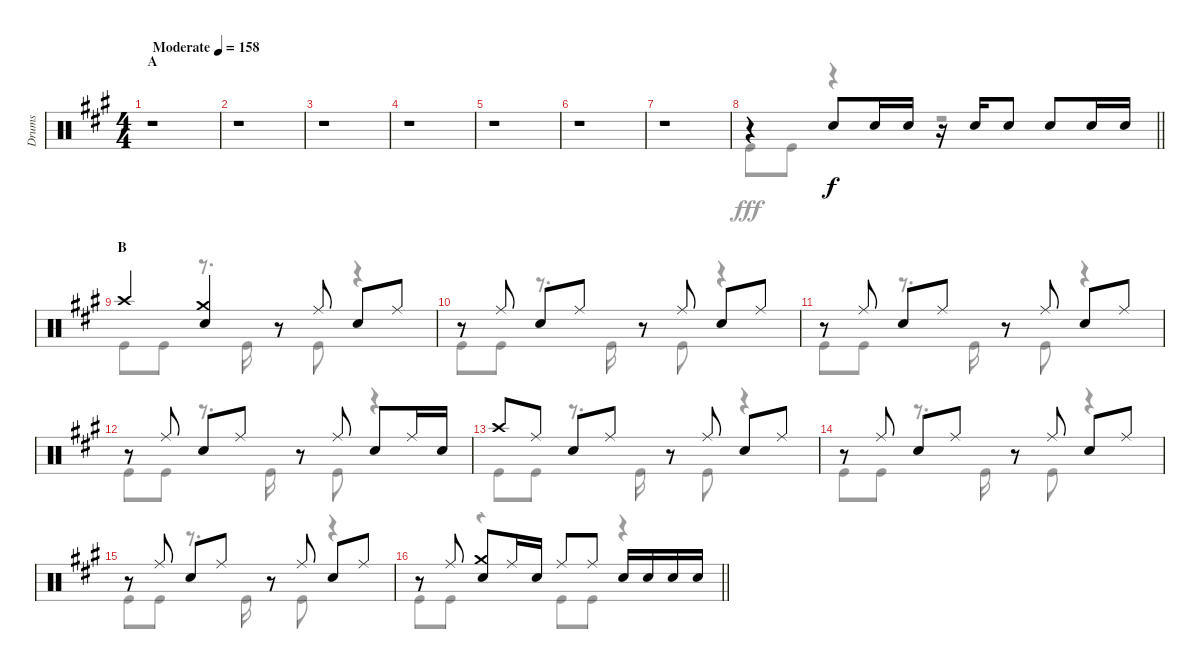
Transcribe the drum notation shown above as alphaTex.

\track ("Drums" "Drums") {instrument percussion}
\staff {score}
\articulation defaults
\voice
\ts (4 4)
\section ("" "A")
\tempo (158 "Moderate")
\clef neutral
\ks a
r.1{dy f} |
r.1 |
r.1 |
r.1 |
r.1 |
r.1 |
r.1 |
\barLineRight lightlight
r.4 "Snare (hit) 2".8 "Snare (hit) 2".16 "Snare (hit) 2".16 r.16 "Snare (hit) 2".16 "Snare (hit) 2".8 "Snare (hit) 2".8 "Snare (hit) 2".16 "Snare (hit) 2".16 |
\section ("" "B")
"Crash high (hit)".4 ("Crash medium (hit)" "Snare (hit) 2").4 r.8 "Ride (middle)".8 "Snare (hit) 2".8 "Ride (middle)".8 |
r.8 "Ride (middle)".8 "Snare (hit) 2".8 "Ride (middle)".8 r.8 "Ride (middle)".8 "Snare (hit) 2".8 "Ride (middle)".8 |
r.8 "Ride (middle)".8 "Snare (hit) 2".8 "Ride (middle)".8 r.8 "Ride (middle)".8 "Snare (hit) 2".8 "Ride (middle)".8 |
r.8 "Ride (middle)".8 "Snare (hit) 2".8 "Ride (middle)".8 r.8 "Ride (middle)".8 "Snare (hit) 2".8 "Ride (middle)".16 "Snare (hit) 2".16 |
"Crash high (hit)".8 "Ride (middle)".8 "Snare (hit) 2".8 "Ride (middle)".8 r.8 "Ride (middle)".8 "Snare (hit) 2".8 "Ride (middle)".8 |
r.8 "Ride (middle)".8 "Snare (hit) 2".8 "Ride (middle)".8 r.8 "Ride (middle)".8 "Snare (hit) 2".8 "Ride (middle)".8 |
r.8 "Ride (middle)".8 "Snare (hit) 2".8 "Ride (middle)".8 r.8 "Ride (middle)".8 "Snare (hit) 2".8 "Ride (middle)".8 |
\barLineRight lightlight
r.8 "Ride (middle)".8 ("Crash medium (hit)" "Snare (hit) 2").8 "Ride (middle)".16 "Snare (hit) 2".16 "Ride (middle)".8 "Ride (middle)".8 "Snare (hit) 2".16 "Snare (hit) 2".16 "Snare (hit) 2".16 "Snare (hit) 2".16
\voice
\clef neutral
\ottava regular
\simile none
\ks a
r.1{dy fff} |
r.1 |
r.1 |
r.1 |
r.1 |
r.1 |
r.1 |
\barLineRight lightlight "Kick (hit)".8 "Kick (hit)".8
r.4 r.2 |
"Kick (hit)".8 "Kick (hit)".8 r.8{d} "Kick (hit)".16 r.8 "Kick (hit)".8 r.4 |
"Kick (hit)".8 "Kick (hit)".8 r.8{d} "Kick (hit)".16 r.8 "Kick (hit)".8 r.4 |
"Kick (hit)".8 "Kick (hit)".8 r.8{d} "Kick (hit)".16 r.8 "Kick (hit)".8 r.4 |
"Kick (hit)".8 "Kick (hit)".8 r.8{d} "Kick (hit)".16 r.8 "Kick (hit)".8 r.4 |
"Kick (hit)".8 "Kick (hit)".8 r.8{d} "Kick (hit)".16 r.8 "Kick (hit)".8 r.4 |
"Kick (hit)".8 "Kick (hit)".8 r.8{d} "Kick (hit)".16 r.8 "Kick (hit)".8 r.4 |
"Kick (hit)".8 "Kick (hit)".8 r.8{d} "Kick (hit)".16 r.8 "Kick (hit)".8 r.4 |
\barLineRight lightlight "Kick (hit)".8 "Kick (hit)".8
r.4 "Kick (hit)".8 "Kick (hit)".8 r.4
